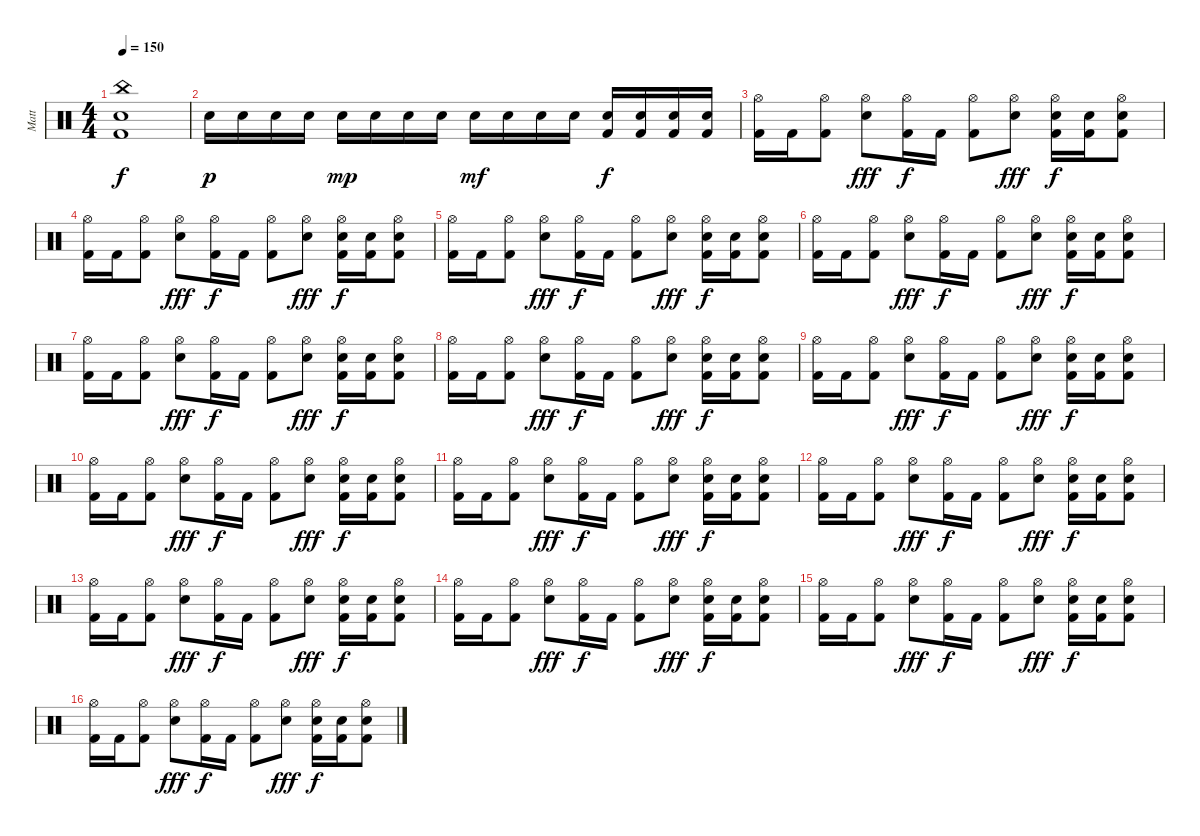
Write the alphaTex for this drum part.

\track ("Matt" "Matt") {instrument percussion}
\staff {score}
\articulation defaults
\ts (4 4)
\tempo 150
\clef neutral
\ks c
("Snare (hit) 2" "China (hit)" "Kick (hit) 2").1{dy f} |
"Snare (hit) 2".16{dy p} "Snare (hit) 2".16 "Snare (hit) 2".16 "Snare (hit) 2".16 "Snare (hit) 2".16{dy mp} "Snare (hit) 2".16 "Snare (hit) 2".16 "Snare (hit) 2".16 "Snare (hit) 2".16{dy mf} "Snare (hit) 2".16 "Snare (hit) 2".16 "Snare (hit) 2".16 ("Snare (hit) 2" "Kick (hit) 2").16{dy f} ("Snare (hit) 2" "Kick (hit) 2").16 ("Snare (hit) 2" "Kick (hit) 2").16 ("Snare (hit) 2" "Kick (hit) 2").16 |
("Hi-Hat (open)" "Kick (hit) 2").16 "Kick (hit) 2".16 ("Hi-Hat (open)" "Kick (hit) 2").8 ("Hi-Hat (open)" "Snare (hit) 2").8{dy fff} ("Hi-Hat (open)" "Kick (hit) 2").16{dy f} "Kick (hit) 2".16 ("Hi-Hat (open)" "Kick (hit) 2").8 ("Hi-Hat (open)" "Snare (hit) 2").8{dy fff} ("Hi-Hat (open)" "Snare (hit) 2" "Kick (hit) 2").16{dy f} ("Snare (hit) 2" "Kick (hit) 2").16 ("Hi-Hat (open)" "Snare (hit) 2" "Kick (hit) 2").8 |
("Hi-Hat (open)" "Kick (hit) 2").16 "Kick (hit) 2".16 ("Hi-Hat (open)" "Kick (hit) 2").8 ("Hi-Hat (open)" "Snare (hit) 2").8{dy fff} ("Hi-Hat (open)" "Kick (hit) 2").16{dy f} "Kick (hit) 2".16 ("Hi-Hat (open)" "Kick (hit) 2").8 ("Hi-Hat (open)" "Snare (hit) 2").8{dy fff} ("Hi-Hat (open)" "Snare (hit) 2" "Kick (hit) 2").16{dy f} ("Snare (hit) 2" "Kick (hit) 2").16 ("Hi-Hat (open)" "Snare (hit) 2" "Kick (hit) 2").8 |
("Hi-Hat (open)" "Kick (hit) 2").16 "Kick (hit) 2".16 ("Hi-Hat (open)" "Kick (hit) 2").8 ("Hi-Hat (open)" "Snare (hit) 2").8{dy fff} ("Hi-Hat (open)" "Kick (hit) 2").16{dy f} "Kick (hit) 2".16 ("Hi-Hat (open)" "Kick (hit) 2").8 ("Hi-Hat (open)" "Snare (hit) 2").8{dy fff} ("Hi-Hat (open)" "Snare (hit) 2" "Kick (hit) 2").16{dy f} ("Snare (hit) 2" "Kick (hit) 2").16 ("Hi-Hat (open)" "Snare (hit) 2" "Kick (hit) 2").8 |
("Hi-Hat (open)" "Kick (hit) 2").16 "Kick (hit) 2".16 ("Hi-Hat (open)" "Kick (hit) 2").8 ("Hi-Hat (open)" "Snare (hit) 2").8{dy fff} ("Hi-Hat (open)" "Kick (hit) 2").16{dy f} "Kick (hit) 2".16 ("Hi-Hat (open)" "Kick (hit) 2").8 ("Hi-Hat (open)" "Snare (hit) 2").8{dy fff} ("Hi-Hat (open)" "Snare (hit) 2" "Kick (hit) 2").16{dy f} ("Snare (hit) 2" "Kick (hit) 2").16 ("Hi-Hat (open)" "Snare (hit) 2" "Kick (hit) 2").8 |
("Hi-Hat (open)" "Kick (hit) 2").16 "Kick (hit) 2".16 ("Hi-Hat (open)" "Kick (hit) 2").8 ("Hi-Hat (open)" "Snare (hit) 2").8{dy fff} ("Hi-Hat (open)" "Kick (hit) 2").16{dy f} "Kick (hit) 2".16 ("Hi-Hat (open)" "Kick (hit) 2").8 ("Hi-Hat (open)" "Snare (hit) 2").8{dy fff} ("Hi-Hat (open)" "Snare (hit) 2" "Kick (hit) 2").16{dy f} ("Snare (hit) 2" "Kick (hit) 2").16 ("Hi-Hat (open)" "Snare (hit) 2" "Kick (hit) 2").8 |
("Hi-Hat (open)" "Kick (hit) 2").16 "Kick (hit) 2".16 ("Hi-Hat (open)" "Kick (hit) 2").8 ("Hi-Hat (open)" "Snare (hit) 2").8{dy fff} ("Hi-Hat (open)" "Kick (hit) 2").16{dy f} "Kick (hit) 2".16 ("Hi-Hat (open)" "Kick (hit) 2").8 ("Hi-Hat (open)" "Snare (hit) 2").8{dy fff} ("Hi-Hat (open)" "Snare (hit) 2" "Kick (hit) 2").16{dy f} ("Snare (hit) 2" "Kick (hit) 2").16 ("Hi-Hat (open)" "Snare (hit) 2" "Kick (hit) 2").8 |
("Hi-Hat (open)" "Kick (hit) 2").16 "Kick (hit) 2".16 ("Hi-Hat (open)" "Kick (hit) 2").8 ("Hi-Hat (open)" "Snare (hit) 2").8{dy fff} ("Hi-Hat (open)" "Kick (hit) 2").16{dy f} "Kick (hit) 2".16 ("Hi-Hat (open)" "Kick (hit) 2").8 ("Hi-Hat (open)" "Snare (hit) 2").8{dy fff} ("Hi-Hat (open)" "Snare (hit) 2" "Kick (hit) 2").16{dy f} ("Snare (hit) 2" "Kick (hit) 2").16 ("Hi-Hat (open)" "Snare (hit) 2" "Kick (hit) 2").8 |
("Hi-Hat (open)" "Kick (hit) 2").16 "Kick (hit) 2".16 ("Hi-Hat (open)" "Kick (hit) 2").8 ("Hi-Hat (open)" "Snare (hit) 2").8{dy fff} ("Hi-Hat (open)" "Kick (hit) 2").16{dy f} "Kick (hit) 2".16 ("Hi-Hat (open)" "Kick (hit) 2").8 ("Hi-Hat (open)" "Snare (hit) 2").8{dy fff} ("Hi-Hat (open)" "Snare (hit) 2" "Kick (hit) 2").16{dy f} ("Snare (hit) 2" "Kick (hit) 2").16 ("Hi-Hat (open)" "Snare (hit) 2" "Kick (hit) 2").8 |
("Hi-Hat (open)" "Kick (hit) 2").16 "Kick (hit) 2".16 ("Hi-Hat (open)" "Kick (hit) 2").8 ("Hi-Hat (open)" "Snare (hit) 2").8{dy fff} ("Hi-Hat (open)" "Kick (hit) 2").16{dy f} "Kick (hit) 2".16 ("Hi-Hat (open)" "Kick (hit) 2").8 ("Hi-Hat (open)" "Snare (hit) 2").8{dy fff} ("Hi-Hat (open)" "Snare (hit) 2" "Kick (hit) 2").16{dy f} ("Snare (hit) 2" "Kick (hit) 2").16 ("Hi-Hat (open)" "Snare (hit) 2" "Kick (hit) 2").8 |
("Hi-Hat (open)" "Kick (hit) 2").16 "Kick (hit) 2".16 ("Hi-Hat (open)" "Kick (hit) 2").8 ("Hi-Hat (open)" "Snare (hit) 2").8{dy fff} ("Hi-Hat (open)" "Kick (hit) 2").16{dy f} "Kick (hit) 2".16 ("Hi-Hat (open)" "Kick (hit) 2").8 ("Hi-Hat (open)" "Snare (hit) 2").8{dy fff} ("Hi-Hat (open)" "Snare (hit) 2" "Kick (hit) 2").16{dy f} ("Snare (hit) 2" "Kick (hit) 2").16 ("Hi-Hat (open)" "Snare (hit) 2" "Kick (hit) 2").8 |
("Hi-Hat (open)" "Kick (hit) 2").16 "Kick (hit) 2".16 ("Hi-Hat (open)" "Kick (hit) 2").8 ("Hi-Hat (open)" "Snare (hit) 2").8{dy fff} ("Hi-Hat (open)" "Kick (hit) 2").16{dy f} "Kick (hit) 2".16 ("Hi-Hat (open)" "Kick (hit) 2").8 ("Hi-Hat (open)" "Snare (hit) 2").8{dy fff} ("Hi-Hat (open)" "Snare (hit) 2" "Kick (hit) 2").16{dy f} ("Snare (hit) 2" "Kick (hit) 2").16 ("Hi-Hat (open)" "Snare (hit) 2" "Kick (hit) 2").8 |
("Hi-Hat (open)" "Kick (hit) 2").16 "Kick (hit) 2".16 ("Hi-Hat (open)" "Kick (hit) 2").8 ("Hi-Hat (open)" "Snare (hit) 2").8{dy fff} ("Hi-Hat (open)" "Kick (hit) 2").16{dy f} "Kick (hit) 2".16 ("Hi-Hat (open)" "Kick (hit) 2").8 ("Hi-Hat (open)" "Snare (hit) 2").8{dy fff} ("Hi-Hat (open)" "Snare (hit) 2" "Kick (hit) 2").16{dy f} ("Snare (hit) 2" "Kick (hit) 2").16 ("Hi-Hat (open)" "Snare (hit) 2" "Kick (hit) 2").8 |
("Hi-Hat (open)" "Kick (hit) 2").16 "Kick (hit) 2".16 ("Hi-Hat (open)" "Kick (hit) 2").8 ("Hi-Hat (open)" "Snare (hit) 2").8{dy fff} ("Hi-Hat (open)" "Kick (hit) 2").16{dy f} "Kick (hit) 2".16 ("Hi-Hat (open)" "Kick (hit) 2").8 ("Hi-Hat (open)" "Snare (hit) 2").8{dy fff} ("Hi-Hat (open)" "Snare (hit) 2" "Kick (hit) 2").16{dy f} ("Snare (hit) 2" "Kick (hit) 2").16 ("Hi-Hat (open)" "Snare (hit) 2" "Kick (hit) 2").8 |
("Hi-Hat (open)" "Kick (hit) 2").16 "Kick (hit) 2".16 ("Hi-Hat (open)" "Kick (hit) 2").8 ("Hi-Hat (open)" "Snare (hit) 2").8{dy fff} ("Hi-Hat (open)" "Kick (hit) 2").16{dy f} "Kick (hit) 2".16 ("Hi-Hat (open)" "Kick (hit) 2").8 ("Hi-Hat (open)" "Snare (hit) 2").8{dy fff} ("Hi-Hat (open)" "Snare (hit) 2" "Kick (hit) 2").16{dy f} ("Snare (hit) 2" "Kick (hit) 2").16 ("Hi-Hat (open)" "Snare (hit) 2" "Kick (hit) 2").8
